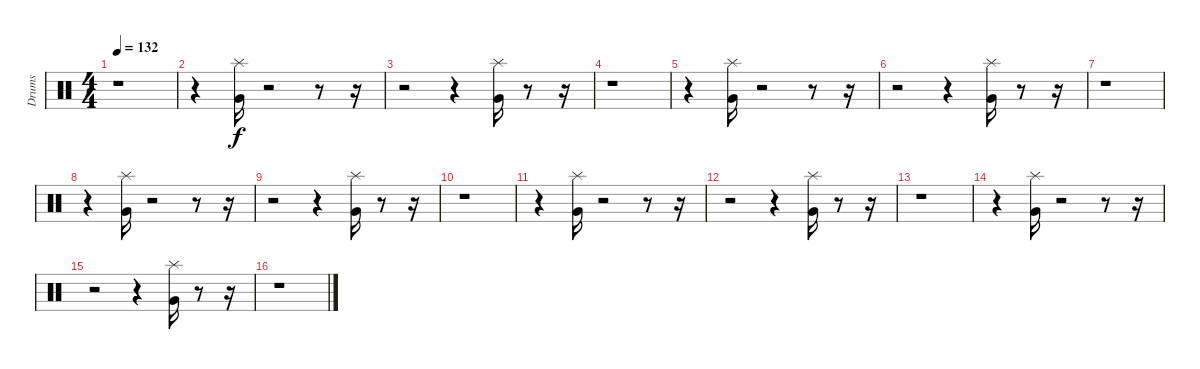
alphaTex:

\track ("Drums" "Drums") {instrument percussion}
\staff {score}
\articulation defaults
\ts (4 4)
\tempo 132
\clef neutral
\ks c
r.1{dy f} |
r.4 ("Very Low Tom (hit)" "Splash (hit)").16 r.2 r.8 r.16 |
r.2 r.4 ("Very Low Tom (hit)" "Splash (hit)").16 r.8 r.16 |
r.1 |
r.4 ("Very Low Tom (hit)" "Splash (hit)").16 r.2 r.8 r.16 |
r.2 r.4 ("Very Low Tom (hit)" "Splash (hit)").16 r.8 r.16 |
r.1 |
r.4 ("Very Low Tom (hit)" "Splash (hit)").16 r.2 r.8 r.16 |
r.2 r.4 ("Very Low Tom (hit)" "Splash (hit)").16 r.8 r.16 |
r.1 |
r.4 ("Very Low Tom (hit)" "Splash (hit)").16 r.2 r.8 r.16 |
r.2 r.4 ("Very Low Tom (hit)" "Splash (hit)").16 r.8 r.16 |
r.1 |
r.4 ("Very Low Tom (hit)" "Splash (hit)").16 r.2 r.8 r.16 |
r.2 r.4 ("Very Low Tom (hit)" "Splash (hit)").16 r.8 r.16 |
r.1
